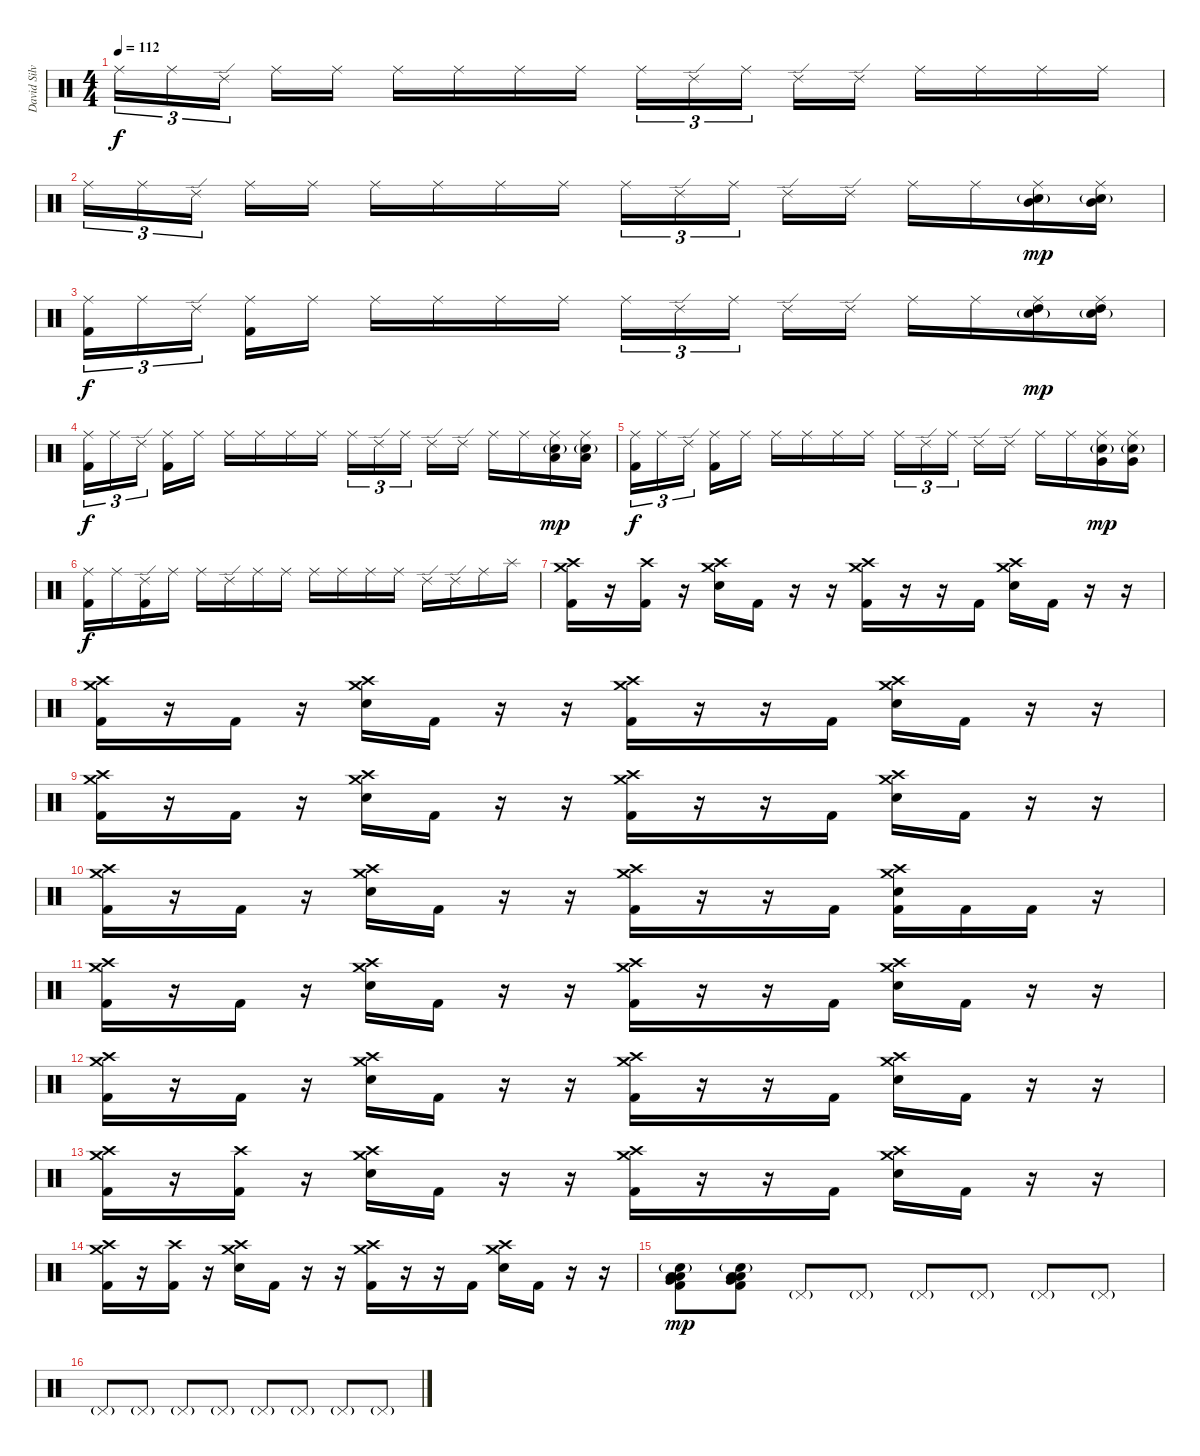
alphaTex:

\track ("David Silveria" "David Silv") {instrument percussion}
\staff {score}
\articulation defaults
\ts (4 4)
\tempo 112
\clef neutral
\ks c "Ride (middle)".16{tu (3 2) dy f} "Ride (middle)".16{tu (3 2)} "Ride (edge) 2".16{tu (3 2) beam splitsecondary} "Ride (middle)".16 "Ride (middle)".16 "Ride (middle)".16 "Ride (middle)".16 "Ride (middle)".16 "Ride (middle)".16 "Ride (middle)".16{tu (3 2)} "Ride (edge) 2".16{tu (3 2)} "Ride (middle)".16{tu (3 2) beam splitsecondary} "Ride (edge) 2".16 "Ride (edge) 2".16 "Ride (middle)".16 "Ride (middle)".16 "Ride (middle)".16 "Ride (middle)".16
|
"Ride (middle)".16{tu (3 2)} "Ride (middle)".16{tu (3 2)} "Ride (edge) 2".16{tu (3 2) beam splitsecondary} "Ride (middle)".16 "Ride (middle)".16 "Ride (middle)".16 "Ride (middle)".16 "Ride (middle)".16 "Ride (middle)".16 "Ride (middle)".16{tu (3 2)} "Ride (edge) 2".16{tu (3 2)} "Ride (middle)".16{tu (3 2) beam splitsecondary} "Ride (edge) 2".16 "Ride (edge) 2".16 "Ride (middle)".16 "Ride (middle)".16 ("Ride (middle)" "Electric Snare (hit)"{g} "Mid Tom (hit)").16{dy mp} ("Ride (middle)" "Electric Snare (hit)"{g} "Mid Tom (hit)").16 |
("Ride (middle)" "Kick (hit) 2").16{tu (3 2) dy f} "Ride (middle)".16{tu (3 2)} "Ride (edge) 2".16{tu (3 2) beam splitsecondary} ("Ride (middle)" "Kick (hit) 2").16 "Ride (middle)".16 "Ride (middle)".16 "Ride (middle)".16 "Ride (middle)".16 "Ride (middle)".16 "Ride (middle)".16{tu (3 2)} "Ride (edge) 2".16{tu (3 2)} "Ride (middle)".16{tu (3 2) beam splitsecondary} "Ride (edge) 2".16 "Ride (edge) 2".16 "Ride (middle)".16 "Ride (middle)".16 ("Ride (middle)" "Electric Snare (hit)"{g} "High Tom (hit)").16{dy mp} ("Ride (middle)" "Electric Snare (hit)"{g} "High Tom (hit)").16 |
("Ride (middle)" "Kick (hit) 2").16{tu (3 2) dy f} "Ride (middle)".16{tu (3 2)} "Ride (edge) 2".16{tu (3 2) beam splitsecondary} ("Ride (middle)" "Kick (hit) 2").16 "Ride (middle)".16 "Ride (middle)".16 "Ride (middle)".16 "Ride (middle)".16 "Ride (middle)".16 "Ride (middle)".16{tu (3 2)} "Ride (edge) 2".16{tu (3 2)} "Ride (middle)".16{tu (3 2) beam splitsecondary} "Ride (edge) 2".16 "Ride (edge) 2".16 "Ride (middle)".16 "Ride (middle)".16 ("Ride (middle)" "Electric Snare (hit)"{g} "Low Tom (hit)").16{dy mp} ("Ride (middle)" "Electric Snare (hit)"{g} "Low Tom (hit)").16 |
("Ride (middle)" "Kick (hit) 2").16{tu (3 2) dy f} "Ride (middle)".16{tu (3 2)} "Ride (edge) 2".16{tu (3 2) beam splitsecondary} ("Ride (middle)" "Kick (hit) 2").16 "Ride (middle)".16 "Ride (middle)".16 "Ride (middle)".16 "Ride (middle)".16 "Ride (middle)".16 "Ride (middle)".16{tu (3 2)} "Ride (edge) 2".16{tu (3 2)} "Ride (middle)".16{tu (3 2) beam splitsecondary} "Ride (edge) 2".16 "Ride (edge) 2".16 "Ride (middle)".16 "Ride (middle)".16 ("Ride (middle)" "Electric Snare (hit)"{g} "Very Low Tom (hit)").16{dy mp} ("Ride (middle)" "Electric Snare (hit)"{g} "Very Low Tom (hit)").16 |
("Ride (middle)" "Kick (hit) 2").16{dy f} "Ride (middle)".16 ("Ride (edge) 2" "Kick (hit) 2").16 "Ride (middle)".16 "Ride (middle)".16 "Ride (edge) 2".16 "Ride (middle)".16 "Ride (middle)".16 "Ride (middle)".16 "Ride (middle)".16 "Ride (middle)".16 "Ride (middle)".16 "Ride (edge) 2".16 "Ride (edge) 2".16 "Ride (middle)".16 "Splash (hit)".16 |
("Crash high (hit)" "Crash medium (hit)" "Kick (hit) 2").16{volume 16} r.16 ("Crash high (hit)" "Kick (hit) 2").16 r.16 ("Crash high (hit)" "Crash medium (hit)" "Electric Snare (hit)").16 "Kick (hit) 2".16 r.16 r.16 ("Crash high (hit)" "Crash medium (hit)" "Kick (hit) 2").16 r.16 r.16 "Kick (hit) 2".16 ("Crash high (hit)" "Crash medium (hit)" "Electric Snare (hit)").16 "Kick (hit) 2".16 r.16 r.16 |
("Crash high (hit)" "Crash medium (hit)" "Kick (hit) 2").16 r.16 "Kick (hit) 2".16 r.16 ("Crash high (hit)" "Crash medium (hit)" "Electric Snare (hit)").16 "Kick (hit) 2".16 r.16 r.16 ("Crash high (hit)" "Crash medium (hit)" "Kick (hit) 2").16 r.16 r.16 "Kick (hit) 2".16 ("Crash high (hit)" "Crash medium (hit)" "Electric Snare (hit)").16 "Kick (hit) 2".16 r.16 r.16 |
("Crash high (hit)" "Crash medium (hit)" "Kick (hit) 2").16 r.16 "Kick (hit) 2".16 r.16 ("Crash high (hit)" "Crash medium (hit)" "Electric Snare (hit)").16 "Kick (hit) 2".16 r.16 r.16 ("Crash high (hit)" "Crash medium (hit)" "Kick (hit) 2").16 r.16 r.16 "Kick (hit) 2".16 ("Crash high (hit)" "Crash medium (hit)" "Electric Snare (hit)").16 "Kick (hit) 2".16 r.16 r.16 |
("Crash high (hit)" "Crash medium (hit)" "Kick (hit) 2").16 r.16 "Kick (hit) 2".16 r.16 ("Crash high (hit)" "Crash medium (hit)" "Electric Snare (hit)").16 "Kick (hit) 2".16 r.16 r.16 ("Crash high (hit)" "Crash medium (hit)" "Kick (hit) 2").16 r.16 r.16 "Kick (hit) 2".16 ("Crash high (hit)" "Crash medium (hit)" "Electric Snare (hit)" "Kick (hit) 2").16 "Kick (hit) 2".16 "Kick (hit) 2".16 r.16 |
("Crash high (hit)" "Crash medium (hit)" "Kick (hit) 2").16 r.16 "Kick (hit) 2".16 r.16 ("Crash high (hit)" "Crash medium (hit)" "Electric Snare (hit)").16 "Kick (hit) 2".16 r.16 r.16 ("Crash high (hit)" "Crash medium (hit)" "Kick (hit) 2").16 r.16 r.16 "Kick (hit) 2".16 ("Crash high (hit)" "Crash medium (hit)" "Electric Snare (hit)").16 "Kick (hit) 2".16 r.16 r.16 |
("Crash high (hit)" "Crash medium (hit)" "Kick (hit) 2").16 r.16 "Kick (hit) 2".16 r.16 ("Crash high (hit)" "Crash medium (hit)" "Electric Snare (hit)").16 "Kick (hit) 2".16 r.16 r.16 ("Crash high (hit)" "Crash medium (hit)" "Kick (hit) 2").16 r.16 r.16 "Kick (hit) 2".16 ("Crash high (hit)" "Crash medium (hit)" "Electric Snare (hit)").16 "Kick (hit) 2".16 r.16 r.16 |
("Crash high (hit)" "Crash medium (hit)" "Kick (hit) 2").16 r.16 ("Crash high (hit)" "Kick (hit) 2").16 r.16 ("Crash high (hit)" "Crash medium (hit)" "Electric Snare (hit)").16 "Kick (hit) 2".16 r.16 r.16 ("Crash high (hit)" "Crash medium (hit)" "Kick (hit) 2").16 r.16 r.16 "Kick (hit) 2".16 ("Crash high (hit)" "Crash medium (hit)" "Electric Snare (hit)").16 "Kick (hit) 2".16 r.16 r.16 |
("Crash high (hit)" "Crash medium (hit)" "Kick (hit) 2").16 r.16 ("Crash high (hit)" "Kick (hit) 2").16 r.16 ("Crash high (hit)" "Crash medium (hit)" "Electric Snare (hit)").16 "Kick (hit) 2".16 r.16 r.16 ("Crash high (hit)" "Crash medium (hit)" "Kick (hit) 2").16 r.16 r.16 "Kick (hit) 2".16 ("Crash high (hit)" "Crash medium (hit)" "Electric Snare (hit)").16 "Kick (hit) 2".16 r.16 r.16 |
("Electric Snare (hit)"{g} "Very Low Tom (hit)" "Low Floor Tom (hit)" "Low Floor Tom (hit)" "Kick (hit) 2").8{dy mp} ("Electric Snare (hit)"{g} "Very Low Tom (hit)" "Low Floor Tom (hit)" "Low Floor Tom (hit)" "Kick (hit) 2").8 "Pedal Hi-Hat (hit)"{g}.8 "Pedal Hi-Hat (hit)"{g}.8 "Pedal Hi-Hat (hit)"{g}.8 "Pedal Hi-Hat (hit)"{g}.8 "Pedal Hi-Hat (hit)"{g}.8 "Pedal Hi-Hat (hit)"{g}.8 |
"Pedal Hi-Hat (hit)"{g}.8 "Pedal Hi-Hat (hit)"{g}.8 "Pedal Hi-Hat (hit)"{g}.8 "Pedal Hi-Hat (hit)"{g}.8 "Pedal Hi-Hat (hit)"{g}.8 "Pedal Hi-Hat (hit)"{g}.8 "Pedal Hi-Hat (hit)"{g}.8 "Pedal Hi-Hat (hit)"{g}.8
